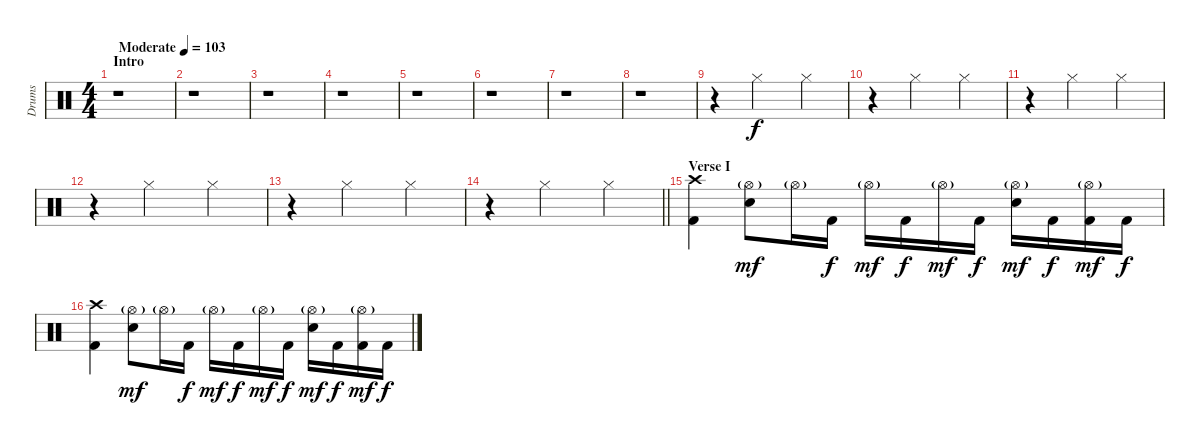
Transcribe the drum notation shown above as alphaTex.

\track ("Drums" "Drums") {instrument percussion}
\staff {score}
\articulation defaults
\ts (4 4)
\section ("" "Intro")
\tempo (103 "Moderate")
\clef neutral
\ks c
r.1{dy f} |
r.1 |
r.1 |
r.1 |
r.1 |
r.1 |
r.1 |
r.1 |
r.4 "Hi-Hat (closed)".2 "Hi-Hat (closed)".4 |
r.4 "Hi-Hat (closed)".2 "Hi-Hat (closed)".4 |
r.4 "Hi-Hat (closed)".2 "Hi-Hat (closed)".4 |
r.4 "Hi-Hat (closed)".2 "Hi-Hat (closed)".4 |
r.4 "Hi-Hat (closed)".2 "Hi-Hat (closed)".4 |
\barLineRight lightlight
r.4 "Hi-Hat (closed)".2 "Hi-Hat (closed)".4 |
\section ("" "Verse I")
("Crash high (hit)" "Kick (hit) 2").4 ("Hi-Hat (open)"{g} "Snare (hit) 2").8{dy mf} "Hi-Hat (open)"{g}.16 "Kick (hit) 2".16{dy f} "Hi-Hat (open)"{g}.16{dy mf} "Kick (hit) 2".16{dy f} "Hi-Hat (open)"{g}.16{dy mf} "Kick (hit) 2".16{dy f} ("Hi-Hat (open)"{g} "Snare (hit) 2").16{dy mf} "Kick (hit) 2".16{dy f} ("Hi-Hat (open)"{g} "Kick (hit) 2").16{dy mf} "Kick (hit) 2".16{dy f} |
("Crash high (hit)" "Kick (hit) 2").4 ("Hi-Hat (open)"{g} "Snare (hit) 2").8{dy mf} "Hi-Hat (open)"{g}.16 "Kick (hit) 2".16{dy f} "Hi-Hat (open)"{g}.16{dy mf} "Kick (hit) 2".16{dy f} "Hi-Hat (open)"{g}.16{dy mf} "Kick (hit) 2".16{dy f} ("Hi-Hat (open)"{g} "Snare (hit) 2").16{dy mf} "Kick (hit) 2".16{dy f} ("Hi-Hat (open)"{g} "Kick (hit) 2").16{dy mf} "Kick (hit) 2".16{dy f}
